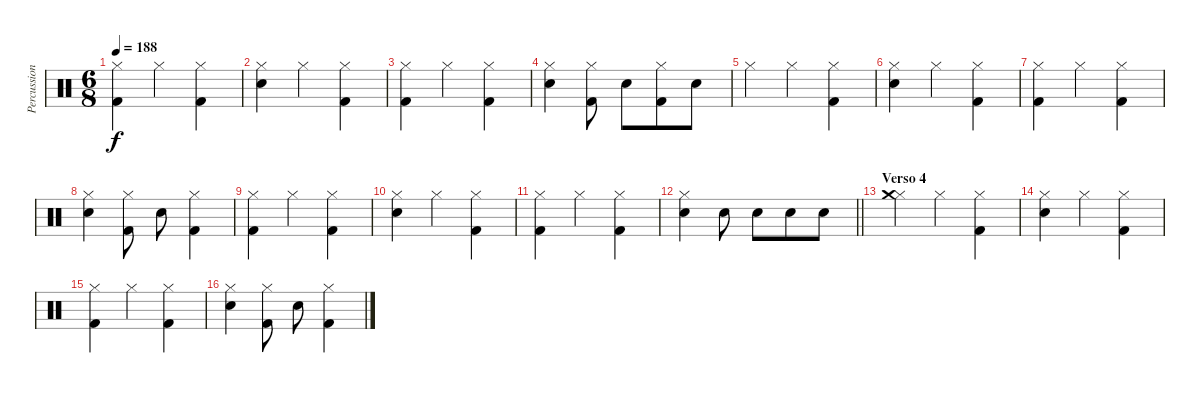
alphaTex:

\track ("Percussion" "Percussion") {instrument percussion}
\staff {score}
\articulation defaults
\ts (6 8)
\tempo 188
\clef neutral
\ks c
("Hi-Hat (closed)" "Kick (hit) 2").4{dy f} "Hi-Hat (closed)".4 ("Hi-Hat (closed)" "Kick (hit) 2").4 |
("Hi-Hat (closed)" "Snare (hit) 2").4 "Hi-Hat (closed)".4 ("Hi-Hat (closed)" "Kick (hit) 2").4 |
("Hi-Hat (closed)" "Kick (hit) 2").4 "Hi-Hat (closed)".4 ("Hi-Hat (closed)" "Kick (hit) 2").4 |
("Hi-Hat (closed)" "Snare (hit) 2").4 ("Hi-Hat (closed)" "Kick (hit) 2").8 "Electric Snare (hit)".8 ("Hi-Hat (closed)" "Kick (hit) 2").8 "Electric Snare (hit)".8 |
"Hi-Hat (closed)".4 "Hi-Hat (closed)".4 ("Hi-Hat (closed)" "Kick (hit) 2").4 |
("Hi-Hat (closed)" "Snare (hit) 2").4 "Hi-Hat (closed)".4 ("Hi-Hat (closed)" "Kick (hit) 2").4 |
("Hi-Hat (closed)" "Kick (hit) 2").4 "Hi-Hat (closed)".4 ("Hi-Hat (closed)" "Kick (hit) 2").4 |
("Hi-Hat (closed)" "Snare (hit) 2").4 ("Hi-Hat (closed)" "Kick (hit) 2").8 "Electric Snare (hit)".8 ("Hi-Hat (closed)" "Kick (hit) 2").4 |
("Hi-Hat (closed)" "Kick (hit) 2").4 "Hi-Hat (closed)".4 ("Hi-Hat (closed)" "Kick (hit) 2").4 |
("Hi-Hat (closed)" "Snare (hit) 2").4 "Hi-Hat (closed)".4 ("Hi-Hat (closed)" "Kick (hit) 2").4 |
("Hi-Hat (closed)" "Kick (hit) 2").4 "Hi-Hat (closed)".4 ("Hi-Hat (closed)" "Kick (hit) 2").4 |
\barLineRight lightlight
("Hi-Hat (closed)" "Snare (hit) 2").4 "Snare (hit) 2".8 "Snare (hit) 2".8 "Snare (hit) 2".8 "Snare (hit) 2".8 |
\section ("" "Verso 4")
("Hi-Hat (closed)" "Crash medium (hit)").4 "Hi-Hat (closed)".4 ("Hi-Hat (closed)" "Kick (hit) 2").4 |
("Hi-Hat (closed)" "Snare (hit) 2").4 "Hi-Hat (closed)".4 ("Hi-Hat (closed)" "Kick (hit) 2").4 |
("Hi-Hat (closed)" "Kick (hit) 2").4 "Hi-Hat (closed)".4 ("Hi-Hat (closed)" "Kick (hit) 2").4 |
("Hi-Hat (closed)" "Snare (hit) 2").4 ("Hi-Hat (closed)" "Kick (hit) 2").8 "Electric Snare (hit)".8 ("Hi-Hat (closed)" "Kick (hit) 2").4
